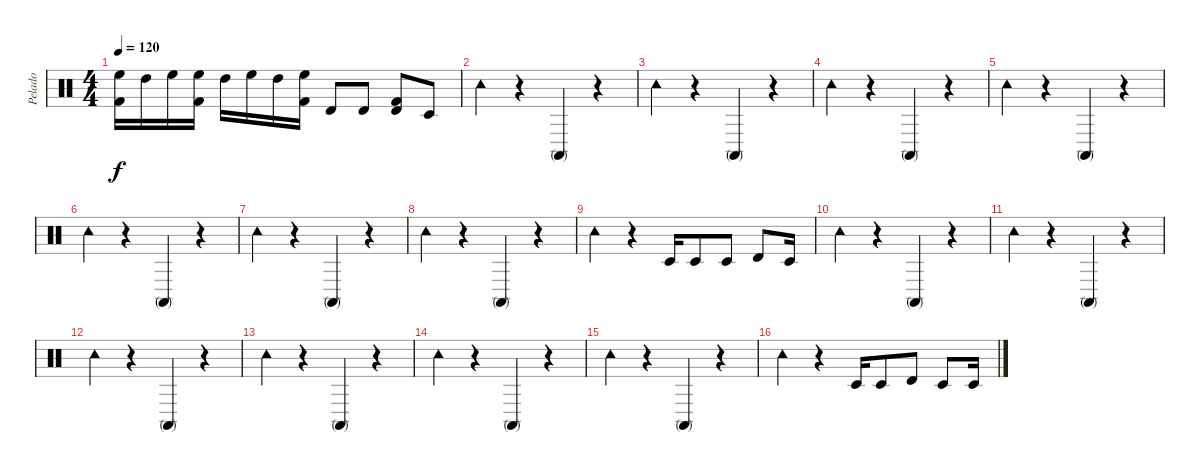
\track ("Pelado" "Pelado") {instrument percussion}
\staff {score}
\articulation defaults
\ts (4 4)
\tempo 120
\clef neutral
\ks c
("Kick (hit) 2" "High Floor Tom (hit)").16{dy f} "High Tom (hit)".16 "High Floor Tom (hit)".16 ("Kick (hit) 2" "High Floor Tom (hit)").16 "High Tom (hit)".16 "High Floor Tom (hit)".16 "High Tom (hit)".16 ("Kick (hit) 2" "High Floor Tom (hit)").16 "Timbale high (hit)".8 "Timbale high (hit)".8 ("Timbale high (hit)" "Kick (hit) 2").8 "Timbale low (hit)".8 |
"Tambourine (hit)".4 r.4 "Conga high (mute)".4 r.4 |
"Tambourine (hit)".4 r.4 "Conga high (mute)".4 r.4 |
"Tambourine (hit)".4 r.4 "Conga high (mute)".4 r.4 |
"Tambourine (hit)".4 r.4 "Conga high (mute)".4 r.4 |
"Tambourine (hit)".4 r.4 "Conga high (mute)".4 r.4 |
"Tambourine (hit)".4 r.4 "Conga high (mute)".4 r.4 |
"Tambourine (hit)".4 r.4 "Conga high (mute)".4 r.4 |
"Tambourine (hit)".4 r.4 "Timbale low (hit)".16 "Timbale low (hit)".8 "Timbale low (hit)".8 "Timbale high (hit)".8 "Timbale low (hit)".16 |
"Tambourine (hit)".4 r.4 "Conga high (mute)".4 r.4 |
"Tambourine (hit)".4 r.4 "Conga high (mute)".4 r.4 |
"Tambourine (hit)".4 r.4 "Conga high (mute)".4 r.4 |
"Tambourine (hit)".4 r.4 "Conga high (mute)".4 r.4 |
"Tambourine (hit)".4 r.4 "Conga high (mute)".4 r.4 |
"Tambourine (hit)".4 r.4 "Conga high (mute)".4 r.4 |
"Tambourine (hit)".4 r.4 "Timbale low (hit)".16 "Timbale low (hit)".8 "Timbale high (hit)".8 "Timbale low (hit)".8 "Timbale low (hit)".16
